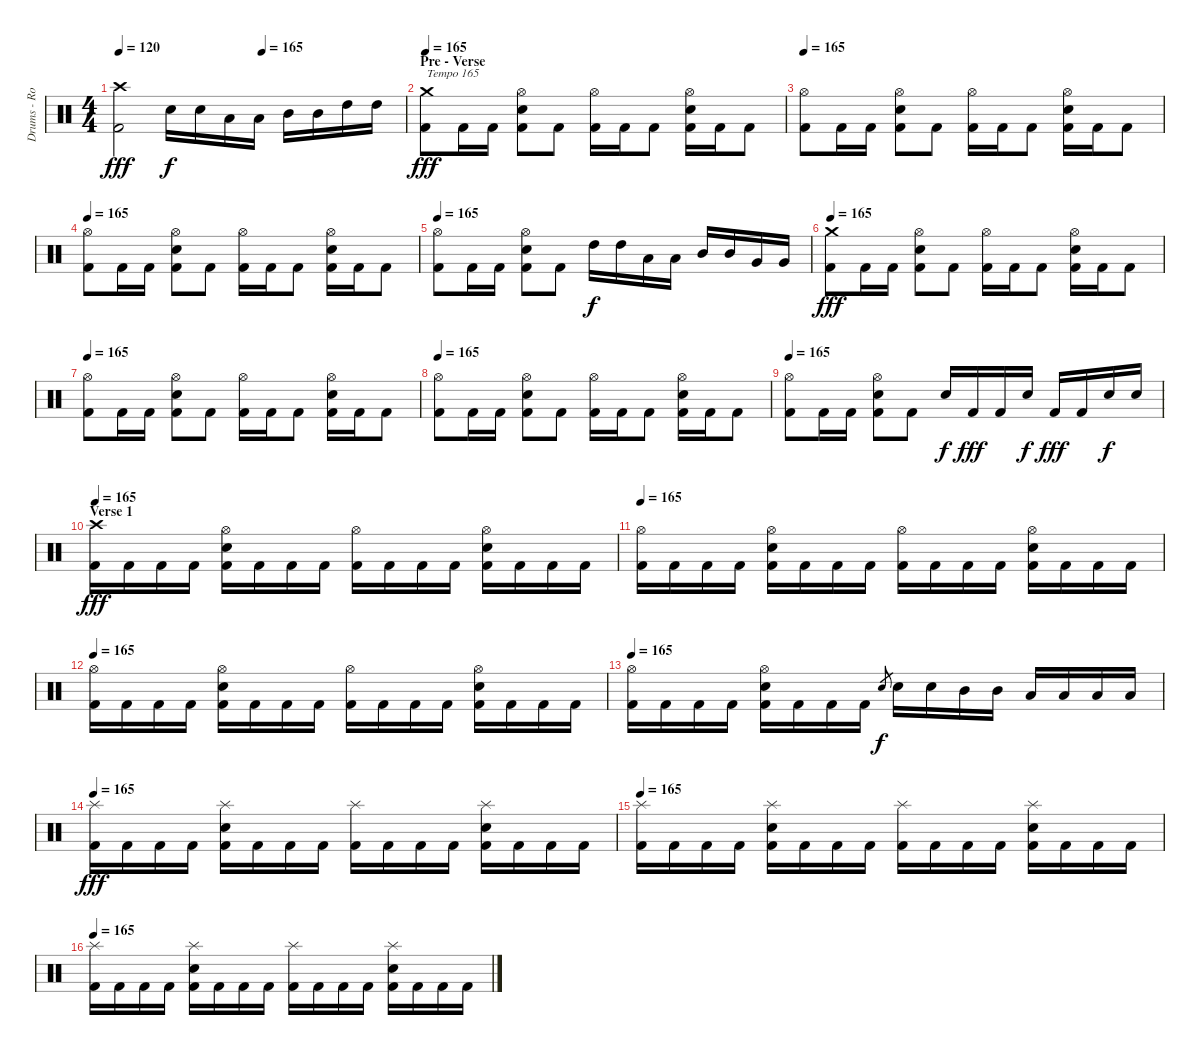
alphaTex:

\track ("Drums - Rodrigo" "Drums - Ro") {instrument percussion}
\staff {score}
\articulation defaults
\ts (4 4)
\tempo 120
\tempo (165 0.5)
\clef neutral
\ks c
("Crash high (hit)" "Kick (hit) 2").2{dy fff} "Electric Snare (hit)".16{dy f} "Electric Snare (hit)".16 "Low Tom (hit)".16 "Low Tom (hit)".16 "Mid Tom (hit)".16 "Mid Tom (hit)".16 "High Tom (hit)".16 "High Tom (hit)".16 |
\section ("" "Pre - Verse")
\tempo 165
("Crash medium (hit)" "Kick (hit) 2").8{txt "Tempo 165" dy fff} "Kick (hit) 2".16 "Kick (hit) 2".16 ("Hi-Hat (open)" "Electric Snare (hit)" "Kick (hit) 2").8 "Kick (hit) 2".8 ("Hi-Hat (open)" "Kick (hit) 2").16 "Kick (hit) 2".16 "Kick (hit) 2".8 ("Hi-Hat (open)" "Electric Snare (hit)" "Kick (hit) 2").16 "Kick (hit) 2".16 "Kick (hit) 2".8 |
\tempo 165
("Hi-Hat (open)" "Kick (hit) 2").8 "Kick (hit) 2".16 "Kick (hit) 2".16 ("Hi-Hat (open)" "Electric Snare (hit)" "Kick (hit) 2").8 "Kick (hit) 2".8 ("Hi-Hat (open)" "Kick (hit) 2").16 "Kick (hit) 2".16 "Kick (hit) 2".8 ("Hi-Hat (open)" "Electric Snare (hit)" "Kick (hit) 2").16 "Kick (hit) 2".16 "Kick (hit) 2".8 |
\tempo 165
("Hi-Hat (open)" "Kick (hit) 2").8 "Kick (hit) 2".16 "Kick (hit) 2".16 ("Hi-Hat (open)" "Electric Snare (hit)" "Kick (hit) 2").8 "Kick (hit) 2".8 ("Hi-Hat (open)" "Kick (hit) 2").16 "Kick (hit) 2".16 "Kick (hit) 2".8 ("Hi-Hat (open)" "Electric Snare (hit)" "Kick (hit) 2").16 "Kick (hit) 2".16 "Kick (hit) 2".8 |
\tempo 165
("Hi-Hat (open)" "Kick (hit) 2").8 "Kick (hit) 2".16 "Kick (hit) 2".16 ("Hi-Hat (open)" "Electric Snare (hit)" "Kick (hit) 2").8 "Kick (hit) 2".8 "High Tom (hit)".16{dy f} "High Tom (hit)".16 "Low Tom (hit)".16 "Low Tom (hit)".16 "Mid Tom (hit)".16 "Mid Tom (hit)".16 "Very Low Tom (hit)".16 "Very Low Tom (hit)".16 |
\tempo 165
("Crash medium (hit)" "Kick (hit) 2").8{dy fff} "Kick (hit) 2".16 "Kick (hit) 2".16 ("Hi-Hat (open)" "Electric Snare (hit)" "Kick (hit) 2").8 "Kick (hit) 2".8 ("Hi-Hat (open)" "Kick (hit) 2").16 "Kick (hit) 2".16 "Kick (hit) 2".8 ("Hi-Hat (open)" "Electric Snare (hit)" "Kick (hit) 2").16 "Kick (hit) 2".16 "Kick (hit) 2".8 |
\tempo 165
("Hi-Hat (open)" "Kick (hit) 2").8 "Kick (hit) 2".16 "Kick (hit) 2".16 ("Hi-Hat (open)" "Electric Snare (hit)" "Kick (hit) 2").8 "Kick (hit) 2".8 ("Hi-Hat (open)" "Kick (hit) 2").16 "Kick (hit) 2".16 "Kick (hit) 2".8 ("Hi-Hat (open)" "Electric Snare (hit)" "Kick (hit) 2").16 "Kick (hit) 2".16 "Kick (hit) 2".8 |
\tempo 165
("Hi-Hat (open)" "Kick (hit) 2").8 "Kick (hit) 2".16 "Kick (hit) 2".16 ("Hi-Hat (open)" "Electric Snare (hit)" "Kick (hit) 2").8 "Kick (hit) 2".8 ("Hi-Hat (open)" "Kick (hit) 2").16 "Kick (hit) 2".16 "Kick (hit) 2".8 ("Hi-Hat (open)" "Electric Snare (hit)" "Kick (hit) 2").16 "Kick (hit) 2".16 "Kick (hit) 2".8 |
\tempo 165
("Hi-Hat (open)" "Kick (hit) 2").8 "Kick (hit) 2".16 "Kick (hit) 2".16 ("Hi-Hat (open)" "Electric Snare (hit)" "Kick (hit) 2").8 "Kick (hit) 2".8 "Electric Snare (hit)".16{dy f} "Kick (hit) 2".16{dy fff} "Kick (hit) 2".16 "Electric Snare (hit)".16{dy f} "Kick (hit) 2".16{dy fff} "Kick (hit) 2".16 "Electric Snare (hit)".16{dy f} "Electric Snare (hit)".16 |
\section ("" "Verse 1")
\tempo 165
("Crash high (hit)" "Kick (hit) 2").16{dy fff} "Kick (hit) 2".16 "Kick (hit) 2".16 "Kick (hit) 2".16 ("Hi-Hat (open)" "Electric Snare (hit)" "Kick (hit) 2").16 "Kick (hit) 2".16 "Kick (hit) 2".16 "Kick (hit) 2".16 ("Hi-Hat (open)" "Kick (hit) 2").16 "Kick (hit) 2".16 "Kick (hit) 2".16 "Kick (hit) 2".16 ("Hi-Hat (open)" "Electric Snare (hit)" "Kick (hit) 2").16 "Kick (hit) 2".16 "Kick (hit) 2".16 "Kick (hit) 2".16 |
\tempo 165
("Hi-Hat (open)" "Kick (hit) 2").16 "Kick (hit) 2".16 "Kick (hit) 2".16 "Kick (hit) 2".16 ("Hi-Hat (open)" "Electric Snare (hit)" "Kick (hit) 2").16 "Kick (hit) 2".16 "Kick (hit) 2".16 "Kick (hit) 2".16 ("Hi-Hat (open)" "Kick (hit) 2").16 "Kick (hit) 2".16 "Kick (hit) 2".16 "Kick (hit) 2".16 ("Hi-Hat (open)" "Electric Snare (hit)" "Kick (hit) 2").16 "Kick (hit) 2".16 "Kick (hit) 2".16 "Kick (hit) 2".16 |
\tempo 165
("Hi-Hat (open)" "Kick (hit) 2").16 "Kick (hit) 2".16 "Kick (hit) 2".16 "Kick (hit) 2".16 ("Hi-Hat (open)" "Electric Snare (hit)" "Kick (hit) 2").16 "Kick (hit) 2".16 "Kick (hit) 2".16 "Kick (hit) 2".16 ("Hi-Hat (open)" "Kick (hit) 2").16 "Kick (hit) 2".16 "Kick (hit) 2".16 "Kick (hit) 2".16 ("Hi-Hat (open)" "Electric Snare (hit)" "Kick (hit) 2").16 "Kick (hit) 2".16 "Kick (hit) 2".16 "Kick (hit) 2".16 |
\tempo 165
("Hi-Hat (open)" "Kick (hit) 2").16 "Kick (hit) 2".16 "Kick (hit) 2".16 "Kick (hit) 2".16 ("Hi-Hat (open)" "Electric Snare (hit)" "Kick (hit) 2").16 "Kick (hit) 2".16 "Kick (hit) 2".16 "Kick (hit) 2".16 "Electric Snare (hit)".8{gr dy f} "Electric Snare (hit)".16 "Electric Snare (hit)".16 "Mid Tom (hit)".16 "Mid Tom (hit)".16 "Low Tom (hit)".16 "Low Tom (hit)".16 "Low Floor Tom (hit)".16 "Low Floor Tom (hit)".16 |
\tempo 165
("Splash (hit)" "Kick (hit) 2").16{dy fff} "Kick (hit) 2".16 "Kick (hit) 2".16 "Kick (hit) 2".16 ("Splash (hit)" "Electric Snare (hit)" "Kick (hit) 2").16 "Kick (hit) 2".16 "Kick (hit) 2".16 "Kick (hit) 2".16 ("Splash (hit)" "Kick (hit) 2").16 "Kick (hit) 2".16 "Kick (hit) 2".16 "Kick (hit) 2".16 ("Splash (hit)" "Electric Snare (hit)" "Kick (hit) 2").16 "Kick (hit) 2".16 "Kick (hit) 2".16 "Kick (hit) 2".16 |
\tempo 165
("Splash (hit)" "Kick (hit) 2").16 "Kick (hit) 2".16 "Kick (hit) 2".16 "Kick (hit) 2".16 ("Splash (hit)" "Electric Snare (hit)" "Kick (hit) 2").16 "Kick (hit) 2".16 "Kick (hit) 2".16 "Kick (hit) 2".16 ("Splash (hit)" "Kick (hit) 2").16 "Kick (hit) 2".16 "Kick (hit) 2".16 "Kick (hit) 2".16 ("Splash (hit)" "Electric Snare (hit)" "Kick (hit) 2").16 "Kick (hit) 2".16 "Kick (hit) 2".16 "Kick (hit) 2".16 |
\tempo 165
("Splash (hit)" "Kick (hit) 2").16 "Kick (hit) 2".16 "Kick (hit) 2".16 "Kick (hit) 2".16 ("Splash (hit)" "Electric Snare (hit)" "Kick (hit) 2").16 "Kick (hit) 2".16 "Kick (hit) 2".16 "Kick (hit) 2".16 ("Splash (hit)" "Kick (hit) 2").16 "Kick (hit) 2".16 "Kick (hit) 2".16 "Kick (hit) 2".16 ("Splash (hit)" "Electric Snare (hit)" "Kick (hit) 2").16 "Kick (hit) 2".16 "Kick (hit) 2".16 "Kick (hit) 2".16
